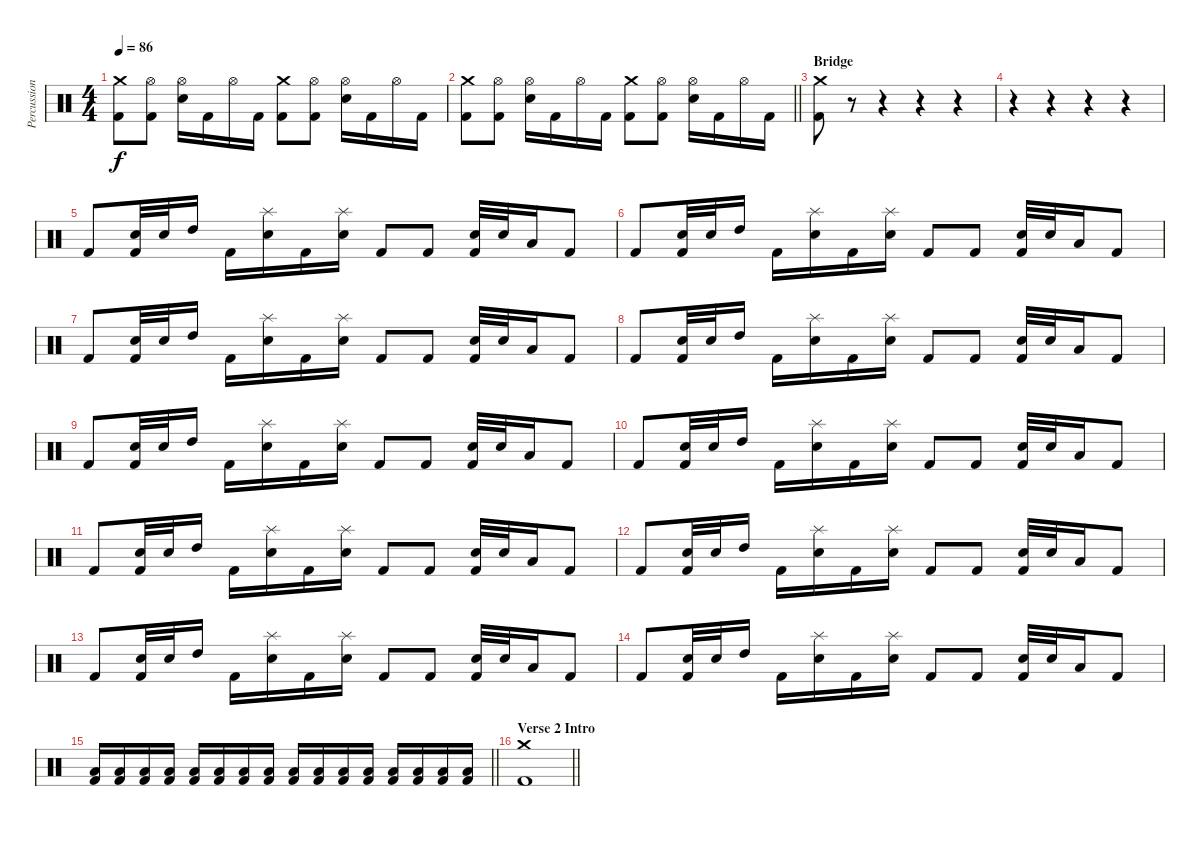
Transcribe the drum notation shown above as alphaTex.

\track ("Percussioni" "Percussion") {instrument percussion}
\staff {score}
\articulation defaults
\ts (4 4)
\tempo 86
\clef neutral
\ks c
("Crash medium (hit)" "Kick (hit) 2").8{dy f} ("Hi-Hat (open)" "Kick (hit) 2").8 ("Hi-Hat (open)" "Snare (hit) 2").16 "Kick (hit) 2".16 "Hi-Hat (open)".16 "Kick (hit) 2".16 ("Crash medium (hit)" "Kick (hit) 2").8 ("Hi-Hat (open)" "Kick (hit) 2").8 ("Hi-Hat (open)" "Snare (hit) 2").16 "Kick (hit) 2".16 "Hi-Hat (open)".16 "Kick (hit) 2".16 |
\barLineRight lightlight
("Crash medium (hit)" "Kick (hit) 2").8 ("Hi-Hat (open)" "Kick (hit) 2").8 ("Hi-Hat (open)" "Snare (hit) 2").16 "Kick (hit) 2".16 "Hi-Hat (open)".16 "Kick (hit) 2".16 ("Crash medium (hit)" "Kick (hit) 2").8 ("Hi-Hat (open)" "Kick (hit) 2").8 ("Hi-Hat (open)" "Snare (hit) 2").16 "Kick (hit) 2".16 "Hi-Hat (open)".16 "Kick (hit) 2".16 |
\section ("" "Bridge")
("Crash medium (hit)" "Kick (hit) 2").8 r.8 r.4 r.4 r.4 |
r.4 r.4 r.4 r.4 |
"Kick (hit) 2".8 ("Snare (hit) 2" "Kick (hit) 2").32 "Snare (hit) 2".32 "High Tom (hit)".16 "Kick (hit) 2".16 ("Splash (hit)" "Snare (hit) 2").16 "Kick (hit) 2".16 ("Splash (hit)" "Snare (hit) 2").16 "Kick (hit) 2".8 "Kick (hit) 2".8 ("Snare (hit) 2" "Kick (hit) 2").32 "Snare (hit) 2".32 "Low Tom (hit)".16 "Kick (hit) 2".8 |
"Kick (hit) 2".8 ("Snare (hit) 2" "Kick (hit) 2").32 "Snare (hit) 2".32 "High Tom (hit)".16 "Kick (hit) 2".16 ("Splash (hit)" "Snare (hit) 2").16 "Kick (hit) 2".16 ("Splash (hit)" "Snare (hit) 2").16 "Kick (hit) 2".8 "Kick (hit) 2".8 ("Snare (hit) 2" "Kick (hit) 2").32 "Snare (hit) 2".32 "Low Tom (hit)".16 "Kick (hit) 2".8 |
"Kick (hit) 2".8 ("Snare (hit) 2" "Kick (hit) 2").32 "Snare (hit) 2".32 "High Tom (hit)".16 "Kick (hit) 2".16 ("Splash (hit)" "Snare (hit) 2").16 "Kick (hit) 2".16 ("Splash (hit)" "Snare (hit) 2").16 "Kick (hit) 2".8 "Kick (hit) 2".8 ("Snare (hit) 2" "Kick (hit) 2").32 "Snare (hit) 2".32 "Low Tom (hit)".16 "Kick (hit) 2".8 |
"Kick (hit) 2".8 ("Snare (hit) 2" "Kick (hit) 2").32 "Snare (hit) 2".32 "High Tom (hit)".16 "Kick (hit) 2".16 ("Splash (hit)" "Snare (hit) 2").16 "Kick (hit) 2".16 ("Splash (hit)" "Snare (hit) 2").16 "Kick (hit) 2".8 "Kick (hit) 2".8 ("Snare (hit) 2" "Kick (hit) 2").32 "Snare (hit) 2".32 "Low Tom (hit)".16 "Kick (hit) 2".8 |
"Kick (hit) 2".8 ("Snare (hit) 2" "Kick (hit) 2").32 "Snare (hit) 2".32 "High Tom (hit)".16 "Kick (hit) 2".16 ("Splash (hit)" "Snare (hit) 2").16 "Kick (hit) 2".16 ("Splash (hit)" "Snare (hit) 2").16 "Kick (hit) 2".8 "Kick (hit) 2".8 ("Snare (hit) 2" "Kick (hit) 2").32 "Snare (hit) 2".32 "Low Tom (hit)".16 "Kick (hit) 2".8 |
"Kick (hit) 2".8 ("Snare (hit) 2" "Kick (hit) 2").32 "Snare (hit) 2".32 "High Tom (hit)".16 "Kick (hit) 2".16 ("Splash (hit)" "Snare (hit) 2").16 "Kick (hit) 2".16 ("Splash (hit)" "Snare (hit) 2").16 "Kick (hit) 2".8 "Kick (hit) 2".8 ("Snare (hit) 2" "Kick (hit) 2").32 "Snare (hit) 2".32 "Low Tom (hit)".16 "Kick (hit) 2".8 |
"Kick (hit) 2".8 ("Snare (hit) 2" "Kick (hit) 2").32 "Snare (hit) 2".32 "High Tom (hit)".16 "Kick (hit) 2".16 ("Splash (hit)" "Snare (hit) 2").16 "Kick (hit) 2".16 ("Splash (hit)" "Snare (hit) 2").16 "Kick (hit) 2".8 "Kick (hit) 2".8 ("Snare (hit) 2" "Kick (hit) 2").32 "Snare (hit) 2".32 "Low Tom (hit)".16 "Kick (hit) 2".8 |
"Kick (hit) 2".8 ("Snare (hit) 2" "Kick (hit) 2").32 "Snare (hit) 2".32 "High Tom (hit)".16 "Kick (hit) 2".16 ("Splash (hit)" "Snare (hit) 2").16 "Kick (hit) 2".16 ("Splash (hit)" "Snare (hit) 2").16 "Kick (hit) 2".8 "Kick (hit) 2".8 ("Snare (hit) 2" "Kick (hit) 2").32 "Snare (hit) 2".32 "Low Tom (hit)".16 "Kick (hit) 2".8 |
"Kick (hit) 2".8 ("Snare (hit) 2" "Kick (hit) 2").32 "Snare (hit) 2".32 "High Tom (hit)".16 "Kick (hit) 2".16 ("Splash (hit)" "Snare (hit) 2").16 "Kick (hit) 2".16 ("Splash (hit)" "Snare (hit) 2").16 "Kick (hit) 2".8 "Kick (hit) 2".8 ("Snare (hit) 2" "Kick (hit) 2").32 "Snare (hit) 2".32 "Low Tom (hit)".16 "Kick (hit) 2".8 |
"Kick (hit) 2".8 ("Snare (hit) 2" "Kick (hit) 2").32 "Snare (hit) 2".32 "High Tom (hit)".16 "Kick (hit) 2".16 ("Splash (hit)" "Snare (hit) 2").16 "Kick (hit) 2".16 ("Splash (hit)" "Snare (hit) 2").16 "Kick (hit) 2".8 "Kick (hit) 2".8 ("Snare (hit) 2" "Kick (hit) 2").32 "Snare (hit) 2".32 "Low Tom (hit)".16 "Kick (hit) 2".8 |
\barLineRight lightlight
("Low Tom (hit)" "Kick (hit) 2").16 ("Low Tom (hit)" "Kick (hit) 2").16 ("Low Tom (hit)" "Kick (hit) 2").16 ("Low Tom (hit)" "Kick (hit) 2").16 ("Low Tom (hit)" "Kick (hit) 2").16 ("Low Tom (hit)" "Kick (hit) 2").16 ("Low Tom (hit)" "Kick (hit) 2").16 ("Low Tom (hit)" "Kick (hit) 2").16 ("Low Tom (hit)" "Kick (hit) 2").16 ("Low Tom (hit)" "Kick (hit) 2").16 ("Low Tom (hit)" "Kick (hit) 2").16 ("Low Tom (hit)" "Kick (hit) 2").16 ("Low Tom (hit)" "Kick (hit) 2").16 ("Low Tom (hit)" "Kick (hit) 2").16 ("Low Tom (hit)" "Kick (hit) 2").16 ("Low Tom (hit)" "Kick (hit) 2").16 |
\section ("" "Verse 2 Intro")
\barLineRight lightlight
("Crash medium (hit)" "Kick (hit) 2").1
